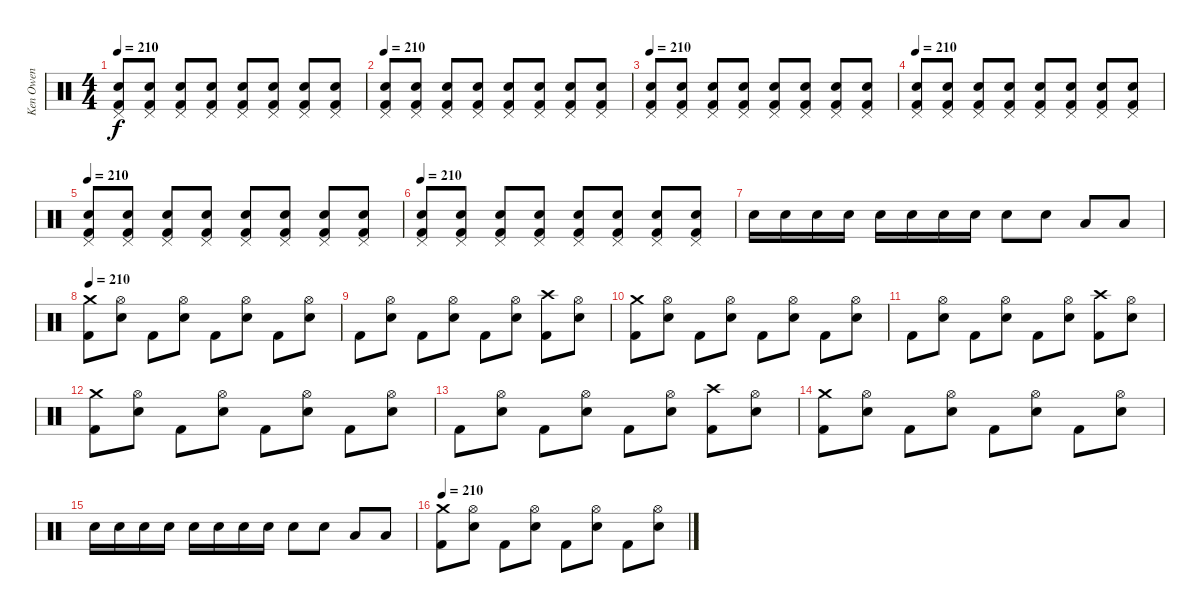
\track ("Ken Owen" "Ken Owen") {instrument percussion}
\staff {score}
\articulation defaults
\ts (4 4)
\tempo 210
\clef neutral
\ks c
("Pedal Hi-Hat (hit)" "Electric Snare (hit)" "Kick (hit) 2").8{dy f} ("Pedal Hi-Hat (hit)" "Electric Snare (hit)" "Kick (hit) 2").8 ("Pedal Hi-Hat (hit)" "Electric Snare (hit)" "Kick (hit) 2").8 ("Pedal Hi-Hat (hit)" "Electric Snare (hit)" "Kick (hit) 2").8 ("Pedal Hi-Hat (hit)" "Electric Snare (hit)" "Kick (hit) 2").8 ("Pedal Hi-Hat (hit)" "Electric Snare (hit)" "Kick (hit) 2").8 ("Pedal Hi-Hat (hit)" "Electric Snare (hit)" "Kick (hit) 2").8 ("Pedal Hi-Hat (hit)" "Electric Snare (hit)" "Kick (hit) 2").8 |
\tempo 210
("Pedal Hi-Hat (hit)" "Electric Snare (hit)" "Kick (hit) 2").8 ("Pedal Hi-Hat (hit)" "Electric Snare (hit)" "Kick (hit) 2").8 ("Pedal Hi-Hat (hit)" "Electric Snare (hit)" "Kick (hit) 2").8 ("Pedal Hi-Hat (hit)" "Electric Snare (hit)" "Kick (hit) 2").8 ("Pedal Hi-Hat (hit)" "Electric Snare (hit)" "Kick (hit) 2").8 ("Pedal Hi-Hat (hit)" "Electric Snare (hit)" "Kick (hit) 2").8 ("Pedal Hi-Hat (hit)" "Electric Snare (hit)" "Kick (hit) 2").8 ("Pedal Hi-Hat (hit)" "Electric Snare (hit)" "Kick (hit) 2").8 |
\tempo 210
("Pedal Hi-Hat (hit)" "Electric Snare (hit)" "Kick (hit) 2").8 ("Pedal Hi-Hat (hit)" "Electric Snare (hit)" "Kick (hit) 2").8 ("Pedal Hi-Hat (hit)" "Electric Snare (hit)" "Kick (hit) 2").8 ("Pedal Hi-Hat (hit)" "Electric Snare (hit)" "Kick (hit) 2").8 ("Pedal Hi-Hat (hit)" "Electric Snare (hit)" "Kick (hit) 2").8 ("Pedal Hi-Hat (hit)" "Electric Snare (hit)" "Kick (hit) 2").8 ("Pedal Hi-Hat (hit)" "Electric Snare (hit)" "Kick (hit) 2").8 ("Pedal Hi-Hat (hit)" "Electric Snare (hit)" "Kick (hit) 2").8 |
\tempo 210
("Pedal Hi-Hat (hit)" "Electric Snare (hit)" "Kick (hit) 2").8 ("Pedal Hi-Hat (hit)" "Electric Snare (hit)" "Kick (hit) 2").8 ("Pedal Hi-Hat (hit)" "Electric Snare (hit)" "Kick (hit) 2").8 ("Pedal Hi-Hat (hit)" "Electric Snare (hit)" "Kick (hit) 2").8 ("Pedal Hi-Hat (hit)" "Electric Snare (hit)" "Kick (hit) 2").8 ("Pedal Hi-Hat (hit)" "Electric Snare (hit)" "Kick (hit) 2").8 ("Pedal Hi-Hat (hit)" "Electric Snare (hit)" "Kick (hit) 2").8 ("Pedal Hi-Hat (hit)" "Electric Snare (hit)" "Kick (hit) 2").8 |
\tempo 210
("Pedal Hi-Hat (hit)" "Electric Snare (hit)" "Kick (hit) 2").8 ("Pedal Hi-Hat (hit)" "Electric Snare (hit)" "Kick (hit) 2").8 ("Pedal Hi-Hat (hit)" "Electric Snare (hit)" "Kick (hit) 2").8 ("Pedal Hi-Hat (hit)" "Electric Snare (hit)" "Kick (hit) 2").8 ("Pedal Hi-Hat (hit)" "Electric Snare (hit)" "Kick (hit) 2").8 ("Pedal Hi-Hat (hit)" "Electric Snare (hit)" "Kick (hit) 2").8 ("Pedal Hi-Hat (hit)" "Electric Snare (hit)" "Kick (hit) 2").8 ("Pedal Hi-Hat (hit)" "Electric Snare (hit)" "Kick (hit) 2").8 |
\tempo 210
("Pedal Hi-Hat (hit)" "Electric Snare (hit)" "Kick (hit) 2").8 ("Pedal Hi-Hat (hit)" "Electric Snare (hit)" "Kick (hit) 2").8 ("Pedal Hi-Hat (hit)" "Electric Snare (hit)" "Kick (hit) 2").8 ("Pedal Hi-Hat (hit)" "Electric Snare (hit)" "Kick (hit) 2").8 ("Pedal Hi-Hat (hit)" "Electric Snare (hit)" "Kick (hit) 2").8 ("Pedal Hi-Hat (hit)" "Electric Snare (hit)" "Kick (hit) 2").8 ("Pedal Hi-Hat (hit)" "Electric Snare (hit)" "Kick (hit) 2").8 ("Pedal Hi-Hat (hit)" "Electric Snare (hit)" "Kick (hit) 2").8 |
"Electric Snare (hit)".16 "Electric Snare (hit)".16 "Electric Snare (hit)".16 "Electric Snare (hit)".16 "Electric Snare (hit)".16 "Electric Snare (hit)".16 "Electric Snare (hit)".16 "Electric Snare (hit)".16 "Electric Snare (hit)".8 "Electric Snare (hit)".8 "Low Floor Tom (hit)".8 "Low Floor Tom (hit)".8 |
\tempo 210
("Crash medium (hit)" "Kick (hit) 2").8 ("Hi-Hat (open)" "Electric Snare (hit)").8 "Kick (hit) 2".8 ("Hi-Hat (open)" "Electric Snare (hit)").8 "Kick (hit) 2".8 ("Hi-Hat (open)" "Electric Snare (hit)").8 "Kick (hit) 2".8 ("Hi-Hat (open)" "Electric Snare (hit)").8 |
"Kick (hit) 2".8 ("Hi-Hat (open)" "Electric Snare (hit)").8 "Kick (hit) 2".8 ("Hi-Hat (open)" "Electric Snare (hit)").8 "Kick (hit) 2".8 ("Hi-Hat (open)" "Electric Snare (hit)").8 ("Crash high (hit)" "Kick (hit) 2").8 ("Hi-Hat (open)" "Electric Snare (hit)").8 |
("Crash medium (hit)" "Kick (hit) 2").8 ("Hi-Hat (open)" "Electric Snare (hit)").8 "Kick (hit) 2".8 ("Hi-Hat (open)" "Electric Snare (hit)").8 "Kick (hit) 2".8 ("Hi-Hat (open)" "Electric Snare (hit)").8 "Kick (hit) 2".8 ("Hi-Hat (open)" "Electric Snare (hit)").8 |
"Kick (hit) 2".8 ("Hi-Hat (open)" "Electric Snare (hit)").8 "Kick (hit) 2".8 ("Hi-Hat (open)" "Electric Snare (hit)").8 "Kick (hit) 2".8 ("Hi-Hat (open)" "Electric Snare (hit)").8 ("Crash high (hit)" "Kick (hit) 2").8 ("Hi-Hat (open)" "Electric Snare (hit)").8 |
("Crash medium (hit)" "Kick (hit) 2").8 ("Hi-Hat (open)" "Electric Snare (hit)").8 "Kick (hit) 2".8 ("Hi-Hat (open)" "Electric Snare (hit)").8 "Kick (hit) 2".8 ("Hi-Hat (open)" "Electric Snare (hit)").8 "Kick (hit) 2".8 ("Hi-Hat (open)" "Electric Snare (hit)").8 |
"Kick (hit) 2".8 ("Hi-Hat (open)" "Electric Snare (hit)").8 "Kick (hit) 2".8 ("Hi-Hat (open)" "Electric Snare (hit)").8 "Kick (hit) 2".8 ("Hi-Hat (open)" "Electric Snare (hit)").8 ("Crash high (hit)" "Kick (hit) 2").8 ("Hi-Hat (open)" "Electric Snare (hit)").8 |
("Crash medium (hit)" "Kick (hit) 2").8 ("Hi-Hat (open)" "Electric Snare (hit)").8 "Kick (hit) 2".8 ("Hi-Hat (open)" "Electric Snare (hit)").8 "Kick (hit) 2".8 ("Hi-Hat (open)" "Electric Snare (hit)").8 "Kick (hit) 2".8 ("Hi-Hat (open)" "Electric Snare (hit)").8 |
"Electric Snare (hit)".16 "Electric Snare (hit)".16 "Electric Snare (hit)".16 "Electric Snare (hit)".16 "Electric Snare (hit)".16 "Electric Snare (hit)".16 "Electric Snare (hit)".16 "Electric Snare (hit)".16 "Electric Snare (hit)".8 "Electric Snare (hit)".8 "Low Floor Tom (hit)".8 "Low Floor Tom (hit)".8 |
\tempo 210
("Crash medium (hit)" "Kick (hit) 2").8 ("Hi-Hat (open)" "Electric Snare (hit)").8 "Kick (hit) 2".8 ("Hi-Hat (open)" "Electric Snare (hit)").8 "Kick (hit) 2".8 ("Hi-Hat (open)" "Electric Snare (hit)").8 "Kick (hit) 2".8 ("Hi-Hat (open)" "Electric Snare (hit)").8
